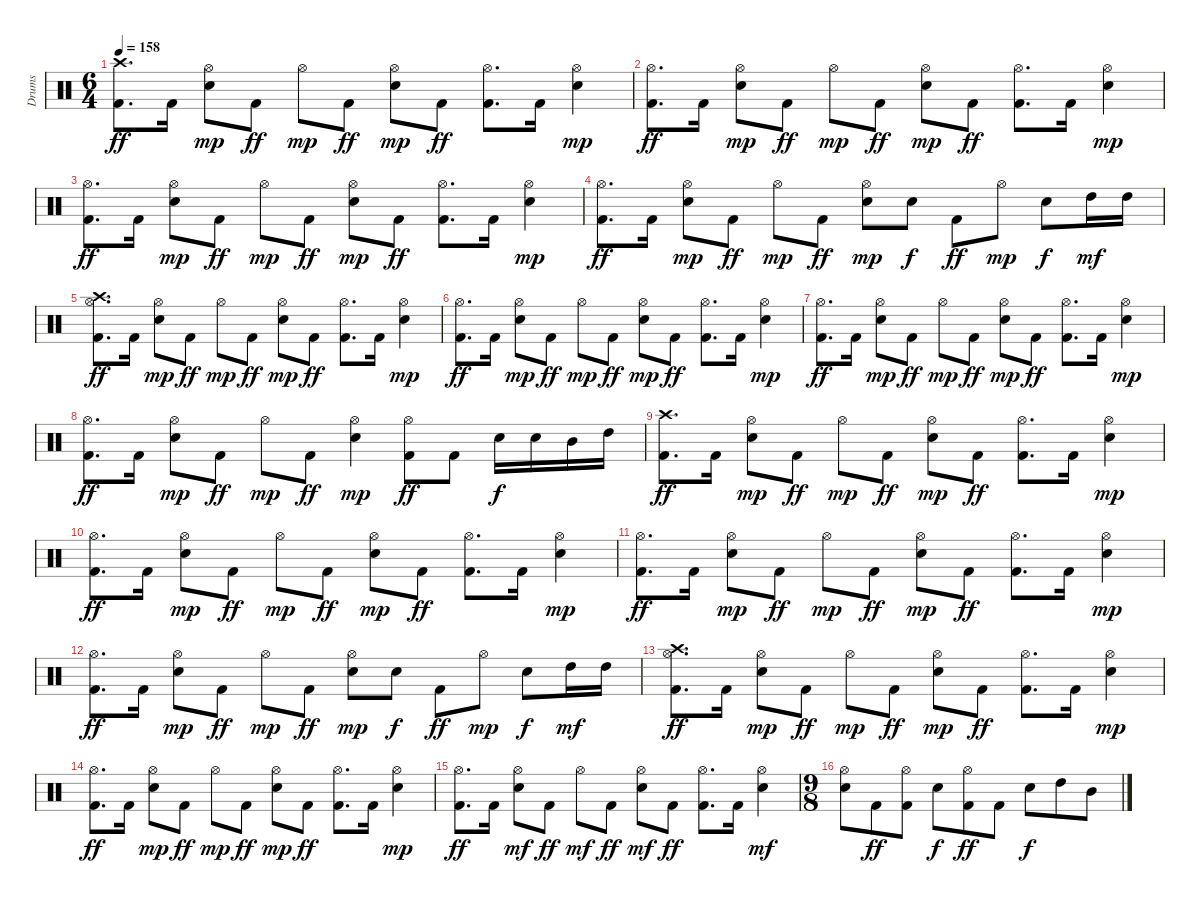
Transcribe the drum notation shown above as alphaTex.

\track ("Drums" "Drums") {instrument percussion}
\staff {score}
\articulation defaults
\ts (6 4)
\tempo 158
\clef neutral
\ks c
("Crash high (hit)" "Kick (hit) 2").8{d dy ff} "Kick (hit) 2".16 ("Hi-Hat (open)" "Electric Snare (hit)").8{dy mp} "Kick (hit) 2".8{dy ff} "Hi-Hat (open)".8{dy mp} "Kick (hit) 2".8{dy ff} ("Hi-Hat (open)" "Electric Snare (hit)").8{dy mp} "Kick (hit) 2".8{dy ff} ("Hi-Hat (open)" "Kick (hit) 2").8{d} "Kick (hit) 2".16 ("Hi-Hat (open)" "Electric Snare (hit)").4{dy mp} |
("Hi-Hat (open)" "Kick (hit) 2").8{d dy ff} "Kick (hit) 2".16 ("Hi-Hat (open)" "Electric Snare (hit)").8{dy mp} "Kick (hit) 2".8{dy ff} "Hi-Hat (open)".8{dy mp} "Kick (hit) 2".8{dy ff} ("Hi-Hat (open)" "Electric Snare (hit)").8{dy mp} "Kick (hit) 2".8{dy ff} ("Hi-Hat (open)" "Kick (hit) 2").8{d} "Kick (hit) 2".16 ("Hi-Hat (open)" "Electric Snare (hit)").4{dy mp} |
("Hi-Hat (open)" "Kick (hit) 2").8{d dy ff} "Kick (hit) 2".16 ("Hi-Hat (open)" "Electric Snare (hit)").8{dy mp} "Kick (hit) 2".8{dy ff} "Hi-Hat (open)".8{dy mp} "Kick (hit) 2".8{dy ff} ("Hi-Hat (open)" "Electric Snare (hit)").8{dy mp} "Kick (hit) 2".8{dy ff} ("Hi-Hat (open)" "Kick (hit) 2").8{d} "Kick (hit) 2".16 ("Hi-Hat (open)" "Electric Snare (hit)").4{dy mp} |
("Hi-Hat (open)" "Kick (hit) 2").8{d dy ff} "Kick (hit) 2".16 ("Hi-Hat (open)" "Electric Snare (hit)").8{dy mp} "Kick (hit) 2".8{dy ff} "Hi-Hat (open)".8{dy mp} "Kick (hit) 2".8{dy ff} ("Hi-Hat (open)" "Electric Snare (hit)").8{dy mp} "Electric Snare (hit)".8{dy f} "Kick (hit) 2".8{dy ff} "Hi-Hat (open)".8{dy mp} "Electric Snare (hit)".8{dy f} "High Tom (hit)".16{dy mf} "High Tom (hit)".16 |
("Crash high (hit)" "Hi-Hat (open)" "Kick (hit) 2").8{d dy ff} "Kick (hit) 2".16 ("Hi-Hat (open)" "Electric Snare (hit)").8{dy mp} "Kick (hit) 2".8{dy ff} "Hi-Hat (open)".8{dy mp} "Kick (hit) 2".8{dy ff} ("Hi-Hat (open)" "Electric Snare (hit)").8{dy mp} "Kick (hit) 2".8{dy ff} ("Hi-Hat (open)" "Kick (hit) 2").8{d} "Kick (hit) 2".16 ("Hi-Hat (open)" "Electric Snare (hit)").4{dy mp} |
("Hi-Hat (open)" "Kick (hit) 2").8{d dy ff} "Kick (hit) 2".16 ("Hi-Hat (open)" "Electric Snare (hit)").8{dy mp} "Kick (hit) 2".8{dy ff} "Hi-Hat (open)".8{dy mp} "Kick (hit) 2".8{dy ff} ("Hi-Hat (open)" "Electric Snare (hit)").8{dy mp} "Kick (hit) 2".8{dy ff} ("Hi-Hat (open)" "Kick (hit) 2").8{d} "Kick (hit) 2".16 ("Hi-Hat (open)" "Electric Snare (hit)").4{dy mp} |
("Hi-Hat (open)" "Kick (hit) 2").8{d dy ff} "Kick (hit) 2".16 ("Hi-Hat (open)" "Electric Snare (hit)").8{dy mp} "Kick (hit) 2".8{dy ff} "Hi-Hat (open)".8{dy mp} "Kick (hit) 2".8{dy ff} ("Hi-Hat (open)" "Electric Snare (hit)").8{dy mp} "Kick (hit) 2".8{dy ff} ("Hi-Hat (open)" "Kick (hit) 2").8{d} "Kick (hit) 2".16 ("Hi-Hat (open)" "Electric Snare (hit)").4{dy mp} |
("Hi-Hat (open)" "Kick (hit) 2").8{d dy ff} "Kick (hit) 2".16 ("Hi-Hat (open)" "Electric Snare (hit)").8{dy mp} "Kick (hit) 2".8{dy ff} "Hi-Hat (open)".8{dy mp} "Kick (hit) 2".8{dy ff} ("Hi-Hat (open)" "Electric Snare (hit)").4{dy mp} ("Hi-Hat (open)" "Kick (hit) 2").8{dy ff} "Kick (hit) 2".8 "Electric Snare (hit)".16{dy f} "Electric Snare (hit)".16 "Mid Tom (hit)".16 "High Tom (hit)".16 |
("Crash high (hit)" "Kick (hit) 2").8{d dy ff} "Kick (hit) 2".16 ("Hi-Hat (open)" "Electric Snare (hit)").8{dy mp} "Kick (hit) 2".8{dy ff} "Hi-Hat (open)".8{dy mp} "Kick (hit) 2".8{dy ff} ("Hi-Hat (open)" "Electric Snare (hit)").8{dy mp} "Kick (hit) 2".8{dy ff} ("Hi-Hat (open)" "Kick (hit) 2").8{d} "Kick (hit) 2".16 ("Hi-Hat (open)" "Electric Snare (hit)").4{dy mp} |
("Hi-Hat (open)" "Kick (hit) 2").8{d dy ff} "Kick (hit) 2".16 ("Hi-Hat (open)" "Electric Snare (hit)").8{dy mp} "Kick (hit) 2".8{dy ff} "Hi-Hat (open)".8{dy mp} "Kick (hit) 2".8{dy ff} ("Hi-Hat (open)" "Electric Snare (hit)").8{dy mp} "Kick (hit) 2".8{dy ff} ("Hi-Hat (open)" "Kick (hit) 2").8{d} "Kick (hit) 2".16 ("Hi-Hat (open)" "Electric Snare (hit)").4{dy mp} |
("Hi-Hat (open)" "Kick (hit) 2").8{d dy ff} "Kick (hit) 2".16 ("Hi-Hat (open)" "Electric Snare (hit)").8{dy mp} "Kick (hit) 2".8{dy ff} "Hi-Hat (open)".8{dy mp} "Kick (hit) 2".8{dy ff} ("Hi-Hat (open)" "Electric Snare (hit)").8{dy mp} "Kick (hit) 2".8{dy ff} ("Hi-Hat (open)" "Kick (hit) 2").8{d} "Kick (hit) 2".16 ("Hi-Hat (open)" "Electric Snare (hit)").4{dy mp} |
("Hi-Hat (open)" "Kick (hit) 2").8{d dy ff} "Kick (hit) 2".16 ("Hi-Hat (open)" "Electric Snare (hit)").8{dy mp} "Kick (hit) 2".8{dy ff} "Hi-Hat (open)".8{dy mp} "Kick (hit) 2".8{dy ff} ("Hi-Hat (open)" "Electric Snare (hit)").8{dy mp} "Electric Snare (hit)".8{dy f} "Kick (hit) 2".8{dy ff} "Hi-Hat (open)".8{dy mp} "Electric Snare (hit)".8{dy f} "High Tom (hit)".16{dy mf} "High Tom (hit)".16 |
("Crash high (hit)" "Hi-Hat (open)" "Kick (hit) 2").8{d dy ff} "Kick (hit) 2".16 ("Hi-Hat (open)" "Electric Snare (hit)").8{dy mp} "Kick (hit) 2".8{dy ff} "Hi-Hat (open)".8{dy mp} "Kick (hit) 2".8{dy ff} ("Hi-Hat (open)" "Electric Snare (hit)").8{dy mp} "Kick (hit) 2".8{dy ff} ("Hi-Hat (open)" "Kick (hit) 2").8{d} "Kick (hit) 2".16 ("Hi-Hat (open)" "Electric Snare (hit)").4{dy mp} |
("Hi-Hat (open)" "Kick (hit) 2").8{d dy ff} "Kick (hit) 2".16 ("Hi-Hat (open)" "Electric Snare (hit)").8{dy mp} "Kick (hit) 2".8{dy ff} "Hi-Hat (open)".8{dy mp} "Kick (hit) 2".8{dy ff} ("Hi-Hat (open)" "Electric Snare (hit)").8{dy mp} "Kick (hit) 2".8{dy ff} ("Hi-Hat (open)" "Kick (hit) 2").8{d} "Kick (hit) 2".16 ("Hi-Hat (open)" "Electric Snare (hit)").4{dy mp} |
("Hi-Hat (open)" "Kick (hit) 2").8{d dy ff} "Kick (hit) 2".16 ("Hi-Hat (open)" "Electric Snare (hit)").8{dy mf} "Kick (hit) 2".8{dy ff} "Hi-Hat (open)".8{dy mf} "Kick (hit) 2".8{dy ff} ("Hi-Hat (open)" "Electric Snare (hit)").8{dy mf} "Kick (hit) 2".8{dy ff} ("Hi-Hat (open)" "Kick (hit) 2").8{d} "Kick (hit) 2".16 ("Hi-Hat (open)" "Electric Snare (hit)").4{dy mf} |
\ts (9 8)
("Hi-Hat (open)" "Electric Snare (hit)").8 "Kick (hit) 2".8{dy ff} ("Hi-Hat (open)" "Kick (hit) 2").8 "Electric Snare (hit)".8{dy f} ("Hi-Hat (open)" "Kick (hit) 2").8{dy ff} "Kick (hit) 2".8 "Electric Snare (hit)".8{dy f} "High Tom (hit)".8 "Mid Tom (hit)".8
